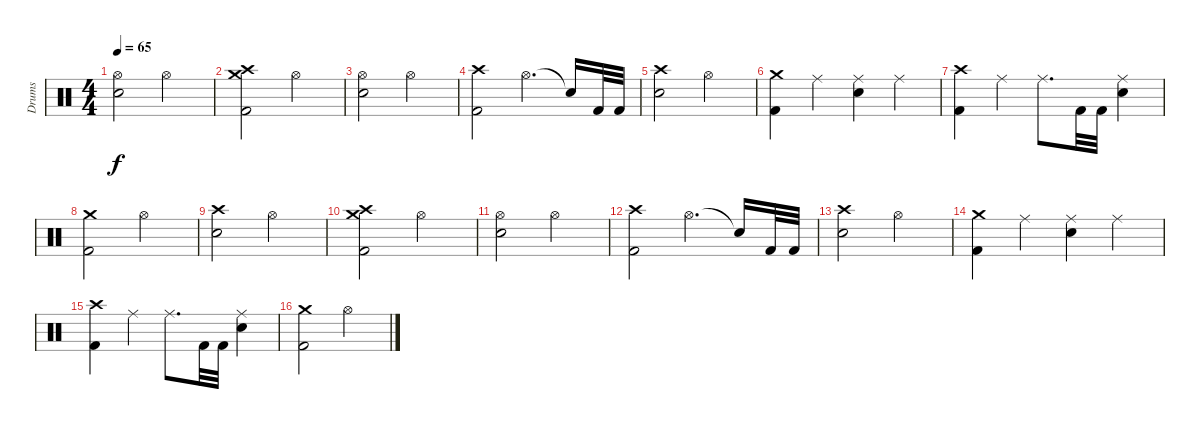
\track ("Drums" "Drums") {instrument percussion}
\staff {score}
\articulation defaults
\ts (4 4)
\tempo 65
\clef neutral
\ks c
("Hi-Hat (open)" "Snare (hit) 2").2{dy f} "Hi-Hat (open)".2 |
("Crash high (hit)" "Crash medium (hit)" "Kick (hit) 2").2 "Hi-Hat (open)".2 |
("Hi-Hat (open)" "Snare (hit) 2").2 "Hi-Hat (open)".2 |
("Crash high (hit)" "Kick (hit) 2").2 "Hi-Hat (open)".4{d} "Snare (hit)"{t}.16 "Kick (hit) 2".32 "Kick (hit) 2".32 |
("Crash high (hit)" "Snare (hit) 2").2 "Hi-Hat (open)".2 |
("Crash medium (hit)" "Kick (hit) 2").4 "Ride (middle)".4 ("Ride (middle)" "Snare (hit) 2").4 "Ride (middle)".4 |
("Crash high (hit)" "Kick (hit) 2").4 "Ride (middle)".4 "Ride (middle)".8{d} "Kick (hit) 2".32 "Kick (hit) 2".32 ("Ride (middle)" "Snare (hit) 2").4 |
("Crash medium (hit)" "Kick (hit) 2").2 "Hi-Hat (open)".2 |
("Crash high (hit)" "Snare (hit) 2").2 "Hi-Hat (open)".2 |
("Crash high (hit)" "Crash medium (hit)" "Kick (hit) 2").2 "Hi-Hat (open)".2 |
("Hi-Hat (open)" "Snare (hit) 2").2 "Hi-Hat (open)".2 |
("Crash high (hit)" "Kick (hit) 2").2 "Hi-Hat (open)".4{d} "Snare (hit)"{t}.16 "Kick (hit) 2".32 "Kick (hit) 2".32 |
("Crash high (hit)" "Snare (hit) 2").2 "Hi-Hat (open)".2 |
("Crash medium (hit)" "Kick (hit) 2").4 "Ride (middle)".4 ("Ride (middle)" "Snare (hit) 2").4 "Ride (middle)".4 |
("Crash high (hit)" "Kick (hit) 2").4 "Ride (middle)".4 "Ride (middle)".8{d} "Kick (hit) 2".32 "Kick (hit) 2".32 ("Ride (middle)" "Snare (hit) 2").4 |
("Crash medium (hit)" "Kick (hit) 2").2 "Hi-Hat (open)".2
